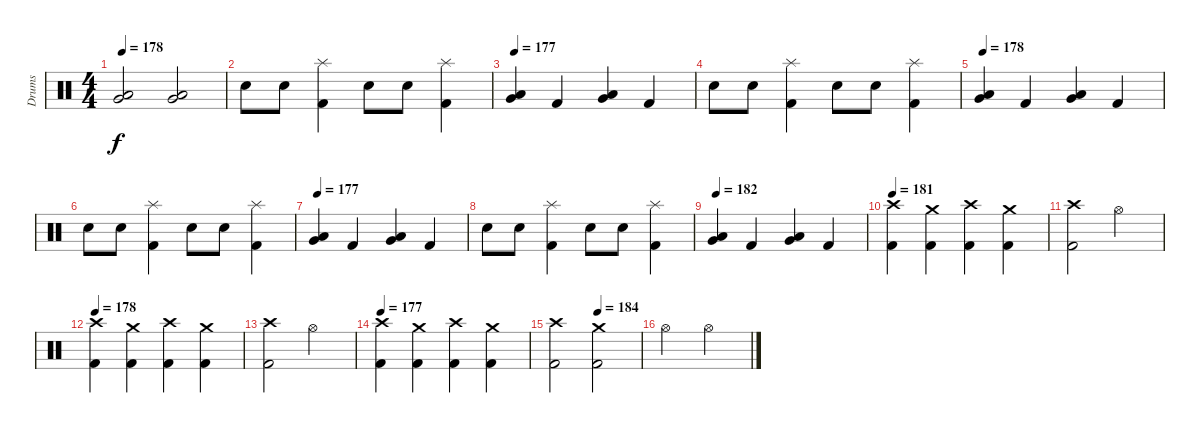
\track ("Drums" "Drums") {instrument percussion}
\staff {score}
\articulation defaults
\ts (4 4)
\tempo 178
\clef neutral
\ks c
("Very Low Tom (hit)" "Low Tom (hit)").2{dy f} ("Very Low Tom (hit)" "Low Tom (hit)").2 |
"Snare (hit) 2".8 "Snare (hit) 2".8 ("Kick (hit) 2" "Splash (hit)").4 "Snare (hit) 2".8 "Snare (hit) 2".8 ("Kick (hit) 2" "Splash (hit)").4 |
\tempo 177
("Very Low Tom (hit)" "Low Tom (hit)").4 "Kick (hit) 2".4 ("Very Low Tom (hit)" "Low Tom (hit)").4 "Kick (hit) 2".4 |
"Snare (hit) 2".8 "Snare (hit) 2".8 ("Kick (hit) 2" "Splash (hit)").4 "Snare (hit) 2".8 "Snare (hit) 2".8 ("Kick (hit) 2" "Splash (hit)").4 |
\tempo 178
("Very Low Tom (hit)" "Low Tom (hit)").4 "Kick (hit) 2".4 ("Very Low Tom (hit)" "Low Tom (hit)").4 "Kick (hit) 2".4 |
"Snare (hit) 2".8 "Snare (hit) 2".8 ("Kick (hit) 2" "Splash (hit)").4 "Snare (hit) 2".8 "Snare (hit) 2".8 ("Kick (hit) 2" "Splash (hit)").4 |
\tempo 177
("Very Low Tom (hit)" "Low Tom (hit)").4 "Kick (hit) 2".4 ("Very Low Tom (hit)" "Low Tom (hit)").4 "Kick (hit) 2".4 |
"Snare (hit) 2".8 "Snare (hit) 2".8 ("Kick (hit) 2" "Splash (hit)").4 "Snare (hit) 2".8 "Snare (hit) 2".8 ("Kick (hit) 2" "Splash (hit)").4 |
\tempo 182
("Very Low Tom (hit)" "Low Tom (hit)").4 "Kick (hit) 2".4 ("Very Low Tom (hit)" "Low Tom (hit)").4 "Kick (hit) 2".4 |
\tempo 181
("Crash high (hit)" "Kick (hit) 2").4 ("Crash medium (hit)" "Kick (hit) 2").4 ("Crash high (hit)" "Kick (hit) 2").4 ("Crash medium (hit)" "Kick (hit) 2").4 |
("Crash high (hit)" "Kick (hit) 2").2 "Hi-Hat (open)".2 |
\tempo 178
("Crash high (hit)" "Kick (hit) 2").4 ("Crash medium (hit)" "Kick (hit) 2").4 ("Crash high (hit)" "Kick (hit) 2").4 ("Crash medium (hit)" "Kick (hit) 2").4 |
("Crash high (hit)" "Kick (hit) 2").2 "Hi-Hat (open)".2 |
\tempo 177
("Crash high (hit)" "Kick (hit) 2").4 ("Crash medium (hit)" "Kick (hit) 2").4 ("Crash high (hit)" "Kick (hit) 2").4 ("Crash medium (hit)" "Kick (hit) 2").4 |
\tempo (184 0.5)
("Crash high (hit)" "Kick (hit) 2").2 ("Crash medium (hit)" "Kick (hit) 2").2 |
"Hi-Hat (open)".2 "Hi-Hat (open)".2
